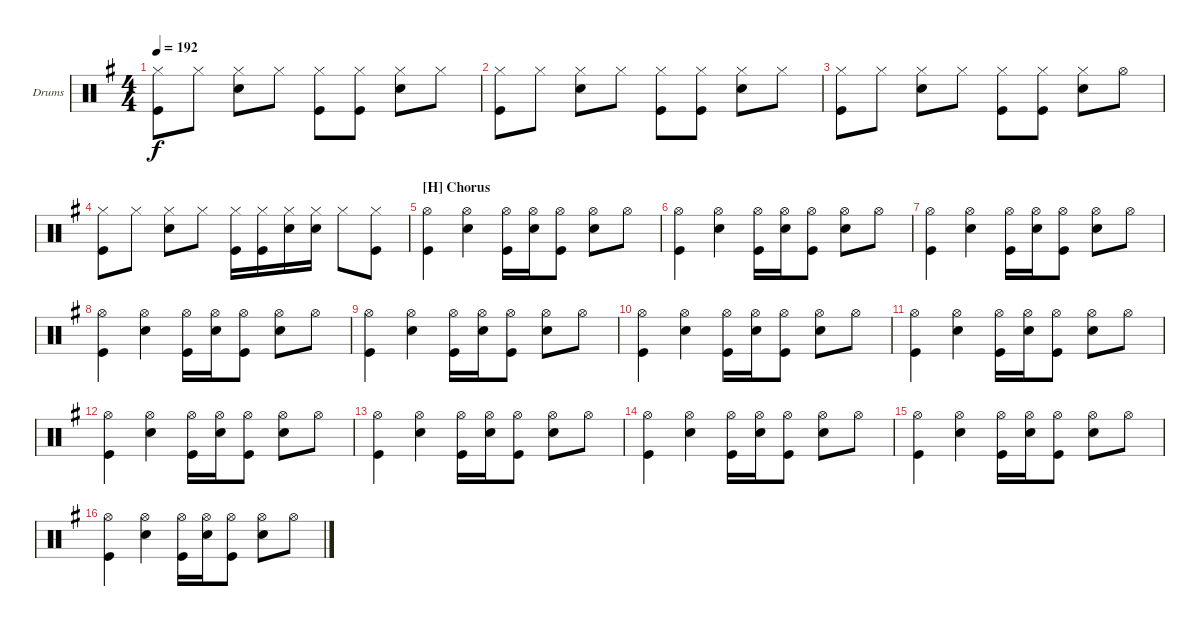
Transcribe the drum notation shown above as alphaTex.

\defaultSystemsLayout 4
\bracketExtendMode groupsimilarinstruments
\firstSystemTrackNameOrientation horizontal
\otherSystemsTrackNameOrientation horizontal
\track ("Drumkit" "Drums") {instrument percussion}
\staff {score}
\articulation defaults
\ts (4 4)
\tempo 192
\clef neutral
\scale
1.04288
\ks g
("Hi-Hat (closed)" "Kick (hit)").8{dy f} "Hi-Hat (closed)".8 ("Hi-Hat (closed)" "Snare (hit) 2").8 "Hi-Hat (closed)".8 ("Hi-Hat (closed)" "Kick (hit)").8 ("Hi-Hat (closed)" "Kick (hit)").8 ("Hi-Hat (closed)" "Snare (hit) 2").8 "Hi-Hat (closed)".8 |
\scale
0.957125 ("Hi-Hat (closed)" "Kick (hit)").8 "Hi-Hat (closed)".8 ("Hi-Hat (closed)" "Snare (hit) 2").8 "Hi-Hat (closed)".8 ("Hi-Hat (closed)" "Kick (hit)").8 ("Hi-Hat (closed)" "Kick (hit)").8 ("Hi-Hat (closed)" "Snare (hit) 2").8 "Hi-Hat (closed)".8 |
\scale
1.04288 ("Hi-Hat (closed)" "Kick (hit)").8 "Hi-Hat (closed)".8 ("Hi-Hat (closed)" "Snare (hit) 2").8 "Hi-Hat (closed)".8 ("Hi-Hat (closed)" "Kick (hit)").8 ("Hi-Hat (closed)" "Kick (hit)").8 ("Hi-Hat (closed)" "Snare (hit) 2").8 "Hi-Hat (open)".8 |
\scale
0.957125 ("Hi-Hat (closed)" "Kick (hit)").8 "Hi-Hat (closed)".8 ("Hi-Hat (closed)" "Snare (hit) 2").8 "Hi-Hat (closed)".8 ("Hi-Hat (closed)" "Kick (hit)").16 ("Hi-Hat (closed)" "Kick (hit)").16 ("Hi-Hat (closed)" "Snare (hit) 2").16 ("Hi-Hat (closed)" "Snare (hit) 2").16 "Hi-Hat (closed)".8 ("Hi-Hat (closed)" "Kick (hit)").8 |
\section ("H" "Chorus")
\scale
1.04288 ("Hi-Hat (open)" "Kick (hit)").4 ("Hi-Hat (open)" "Snare (hit) 2").4 ("Hi-Hat (open)" "Kick (hit)").16 ("Hi-Hat (open)" "Snare (hit) 2").16 ("Hi-Hat (open)" "Kick (hit)").8 ("Hi-Hat (open)" "Snare (hit) 2").8 "Hi-Hat (open)".8 |
\scale
0.957125 ("Hi-Hat (open)" "Kick (hit)").4 ("Hi-Hat (open)" "Snare (hit) 2").4 ("Hi-Hat (open)" "Kick (hit)").16 ("Hi-Hat (open)" "Snare (hit) 2").16 ("Hi-Hat (open)" "Kick (hit)").8 ("Hi-Hat (open)" "Snare (hit) 2").8 "Hi-Hat (open)".8 |
\scale
1.04288 ("Hi-Hat (open)" "Kick (hit)").4 ("Hi-Hat (open)" "Snare (hit) 2").4 ("Hi-Hat (open)" "Kick (hit)").16 ("Hi-Hat (open)" "Snare (hit) 2").16 ("Hi-Hat (open)" "Kick (hit)").8 ("Hi-Hat (open)" "Snare (hit) 2").8 "Hi-Hat (open)".8 |
\scale
0.957125 ("Hi-Hat (open)" "Kick (hit)").4 ("Hi-Hat (open)" "Snare (hit) 2").4 ("Hi-Hat (open)" "Kick (hit)").16 ("Hi-Hat (open)" "Snare (hit) 2").16 ("Hi-Hat (open)" "Kick (hit)").8 ("Hi-Hat (open)" "Snare (hit) 2").8 "Hi-Hat (open)".8 |
\scale
1.04288 ("Hi-Hat (open)" "Kick (hit)").4 ("Hi-Hat (open)" "Snare (hit) 2").4 ("Hi-Hat (open)" "Kick (hit)").16 ("Hi-Hat (open)" "Snare (hit) 2").16 ("Hi-Hat (open)" "Kick (hit)").8 ("Hi-Hat (open)" "Snare (hit) 2").8 "Hi-Hat (open)".8 |
\scale
0.957125 ("Hi-Hat (open)" "Kick (hit)").4 ("Hi-Hat (open)" "Snare (hit) 2").4 ("Hi-Hat (open)" "Kick (hit)").16 ("Hi-Hat (open)" "Snare (hit) 2").16 ("Hi-Hat (open)" "Kick (hit)").8 ("Hi-Hat (open)" "Snare (hit) 2").8 "Hi-Hat (open)".8 |
\scale
1.04288 ("Hi-Hat (open)" "Kick (hit)").4 ("Hi-Hat (open)" "Snare (hit) 2").4 ("Hi-Hat (open)" "Kick (hit)").16 ("Hi-Hat (open)" "Snare (hit) 2").16 ("Hi-Hat (open)" "Kick (hit)").8 ("Hi-Hat (open)" "Snare (hit) 2").8 "Hi-Hat (open)".8 |
\scale
0.957125 ("Hi-Hat (open)" "Kick (hit)").4 ("Hi-Hat (open)" "Snare (hit) 2").4 ("Hi-Hat (open)" "Kick (hit)").16 ("Hi-Hat (open)" "Snare (hit) 2").16 ("Hi-Hat (open)" "Kick (hit)").8 ("Hi-Hat (open)" "Snare (hit) 2").8 "Hi-Hat (open)".8 |
\scale
1.04288 ("Hi-Hat (open)" "Kick (hit)").4 ("Hi-Hat (open)" "Snare (hit) 2").4 ("Hi-Hat (open)" "Kick (hit)").16 ("Hi-Hat (open)" "Snare (hit) 2").16 ("Hi-Hat (open)" "Kick (hit)").8 ("Hi-Hat (open)" "Snare (hit) 2").8 "Hi-Hat (open)".8 |
\scale
0.957125 ("Hi-Hat (open)" "Kick (hit)").4 ("Hi-Hat (open)" "Snare (hit) 2").4 ("Hi-Hat (open)" "Kick (hit)").16 ("Hi-Hat (open)" "Snare (hit) 2").16 ("Hi-Hat (open)" "Kick (hit)").8 ("Hi-Hat (open)" "Snare (hit) 2").8 "Hi-Hat (open)".8 |
\scale
1.04288 ("Hi-Hat (open)" "Kick (hit)").4 ("Hi-Hat (open)" "Snare (hit) 2").4 ("Hi-Hat (open)" "Kick (hit)").16 ("Hi-Hat (open)" "Snare (hit) 2").16 ("Hi-Hat (open)" "Kick (hit)").8 ("Hi-Hat (open)" "Snare (hit) 2").8 "Hi-Hat (open)".8 |
\scale
0.957125 ("Hi-Hat (open)" "Kick (hit)").4 ("Hi-Hat (open)" "Snare (hit) 2").4 ("Hi-Hat (open)" "Kick (hit)").16 ("Hi-Hat (open)" "Snare (hit) 2").16 ("Hi-Hat (open)" "Kick (hit)").8 ("Hi-Hat (open)" "Snare (hit) 2").8 "Hi-Hat (open)".8
